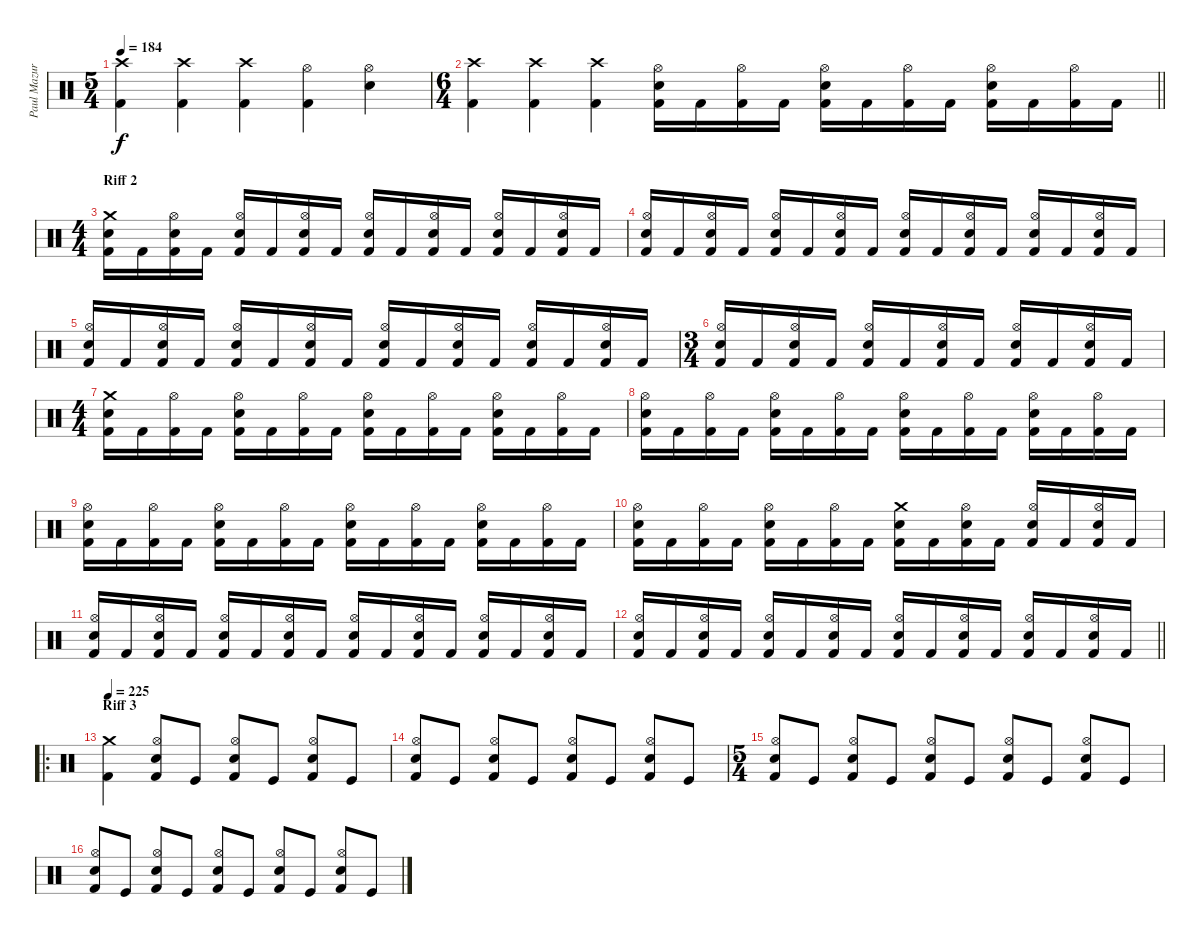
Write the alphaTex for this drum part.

\track ("Paul Mazurkiewicz" "Paul Mazur") {instrument percussion}
\staff {score}
\articulation defaults
\ts (5 4)
\tempo 184
\clef neutral
\ks c
("Crash high (hit)" "Kick (hit) 2").4{dy f} ("Crash high (hit)" "Kick (hit) 2").4 ("Crash high (hit)" "Kick (hit) 2").4 ("Hi-Hat (open)" "Kick (hit) 2").4 ("Hi-Hat (open)" "Electric Snare (hit)").4 |
\ts (6 4)
\barLineRight lightlight
("Crash high (hit)" "Kick (hit) 2").4 ("Crash high (hit)" "Kick (hit) 2").4 ("Crash high (hit)" "Kick (hit) 2").4 ("Hi-Hat (open)" "Electric Snare (hit)" "Kick (hit) 2").16 "Kick (hit) 2".16 ("Hi-Hat (open)" "Kick (hit) 2").16 "Kick (hit) 2".16 ("Hi-Hat (open)" "Electric Snare (hit)" "Kick (hit) 2").16 "Kick (hit) 2".16 ("Hi-Hat (open)" "Kick (hit) 2").16 "Kick (hit) 2".16 ("Hi-Hat (open)" "Electric Snare (hit)" "Kick (hit) 2").16 "Kick (hit) 2".16 ("Hi-Hat (open)" "Kick (hit) 2").16 "Kick (hit) 2".16 |
\ts (4 4)
\section ("" "Riff 2")
("Crash medium (hit)" "Electric Snare (hit)" "Kick (hit) 2").16 "Kick (hit) 2".16 ("Hi-Hat (open)" "Electric Snare (hit)" "Kick (hit) 2").16 "Kick (hit) 2".16 ("Hi-Hat (open)" "Electric Snare (hit)" "Kick (hit) 2").16 "Kick (hit) 2".16 ("Hi-Hat (open)" "Electric Snare (hit)" "Kick (hit) 2").16 "Kick (hit) 2".16 ("Hi-Hat (open)" "Electric Snare (hit)" "Kick (hit) 2").16 "Kick (hit) 2".16 ("Hi-Hat (open)" "Electric Snare (hit)" "Kick (hit) 2").16 "Kick (hit) 2".16 ("Hi-Hat (open)" "Electric Snare (hit)" "Kick (hit) 2").16 "Kick (hit) 2".16 ("Hi-Hat (open)" "Electric Snare (hit)" "Kick (hit) 2").16 "Kick (hit) 2".16 |
("Hi-Hat (open)" "Electric Snare (hit)" "Kick (hit) 2").16 "Kick (hit) 2".16 ("Hi-Hat (open)" "Electric Snare (hit)" "Kick (hit) 2").16 "Kick (hit) 2".16 ("Hi-Hat (open)" "Electric Snare (hit)" "Kick (hit) 2").16 "Kick (hit) 2".16 ("Hi-Hat (open)" "Electric Snare (hit)" "Kick (hit) 2").16 "Kick (hit) 2".16 ("Hi-Hat (open)" "Electric Snare (hit)" "Kick (hit) 2").16 "Kick (hit) 2".16 ("Hi-Hat (open)" "Electric Snare (hit)" "Kick (hit) 2").16 "Kick (hit) 2".16 ("Hi-Hat (open)" "Electric Snare (hit)" "Kick (hit) 2").16 "Kick (hit) 2".16 ("Hi-Hat (open)" "Electric Snare (hit)" "Kick (hit) 2").16 "Kick (hit) 2".16 |
("Hi-Hat (open)" "Electric Snare (hit)" "Kick (hit) 2").16 "Kick (hit) 2".16 ("Hi-Hat (open)" "Electric Snare (hit)" "Kick (hit) 2").16 "Kick (hit) 2".16 ("Hi-Hat (open)" "Electric Snare (hit)" "Kick (hit) 2").16 "Kick (hit) 2".16 ("Hi-Hat (open)" "Electric Snare (hit)" "Kick (hit) 2").16 "Kick (hit) 2".16 ("Hi-Hat (open)" "Electric Snare (hit)" "Kick (hit) 2").16 "Kick (hit) 2".16 ("Hi-Hat (open)" "Electric Snare (hit)" "Kick (hit) 2").16 "Kick (hit) 2".16 ("Hi-Hat (open)" "Electric Snare (hit)" "Kick (hit) 2").16 "Kick (hit) 2".16 ("Hi-Hat (open)" "Electric Snare (hit)" "Kick (hit) 2").16 "Kick (hit) 2".16 |
\ts (3 4)
("Hi-Hat (open)" "Electric Snare (hit)" "Kick (hit) 2").16 "Kick (hit) 2".16 ("Hi-Hat (open)" "Electric Snare (hit)" "Kick (hit) 2").16 "Kick (hit) 2".16 ("Hi-Hat (open)" "Electric Snare (hit)" "Kick (hit) 2").16 "Kick (hit) 2".16 ("Hi-Hat (open)" "Electric Snare (hit)" "Kick (hit) 2").16 "Kick (hit) 2".16 ("Hi-Hat (open)" "Electric Snare (hit)" "Kick (hit) 2").16 "Kick (hit) 2".16 ("Hi-Hat (open)" "Electric Snare (hit)" "Kick (hit) 2").16 "Kick (hit) 2".16 |
\ts (4 4)
("Crash medium (hit)" "Electric Snare (hit)" "Kick (hit) 2").16 "Kick (hit) 2".16 ("Hi-Hat (open)" "Kick (hit) 2").16 "Kick (hit) 2".16 ("Hi-Hat (open)" "Electric Snare (hit)" "Kick (hit) 2").16 "Kick (hit) 2".16 ("Hi-Hat (open)" "Kick (hit) 2").16 "Kick (hit) 2".16 ("Hi-Hat (open)" "Electric Snare (hit)" "Kick (hit) 2").16 "Kick (hit) 2".16 ("Hi-Hat (open)" "Kick (hit) 2").16 "Kick (hit) 2".16 ("Hi-Hat (open)" "Electric Snare (hit)" "Kick (hit) 2").16 "Kick (hit) 2".16 ("Hi-Hat (open)" "Kick (hit) 2").16 "Kick (hit) 2".16 |
("Hi-Hat (open)" "Electric Snare (hit)" "Kick (hit) 2").16 "Kick (hit) 2".16 ("Hi-Hat (open)" "Kick (hit) 2").16 "Kick (hit) 2".16 ("Hi-Hat (open)" "Electric Snare (hit)" "Kick (hit) 2").16 "Kick (hit) 2".16 ("Hi-Hat (open)" "Kick (hit) 2").16 "Kick (hit) 2".16 ("Hi-Hat (open)" "Electric Snare (hit)" "Kick (hit) 2").16 "Kick (hit) 2".16 ("Hi-Hat (open)" "Kick (hit) 2").16 "Kick (hit) 2".16 ("Hi-Hat (open)" "Electric Snare (hit)" "Kick (hit) 2").16 "Kick (hit) 2".16 ("Hi-Hat (open)" "Kick (hit) 2").16 "Kick (hit) 2".16 |
("Hi-Hat (open)" "Electric Snare (hit)" "Kick (hit) 2").16 "Kick (hit) 2".16 ("Hi-Hat (open)" "Kick (hit) 2").16 "Kick (hit) 2".16 ("Hi-Hat (open)" "Electric Snare (hit)" "Kick (hit) 2").16 "Kick (hit) 2".16 ("Hi-Hat (open)" "Kick (hit) 2").16 "Kick (hit) 2".16 ("Hi-Hat (open)" "Electric Snare (hit)" "Kick (hit) 2").16 "Kick (hit) 2".16 ("Hi-Hat (open)" "Kick (hit) 2").16 "Kick (hit) 2".16 ("Hi-Hat (open)" "Electric Snare (hit)" "Kick (hit) 2").16 "Kick (hit) 2".16 ("Hi-Hat (open)" "Kick (hit) 2").16 "Kick (hit) 2".16 |
("Hi-Hat (open)" "Electric Snare (hit)" "Kick (hit) 2").16 "Kick (hit) 2".16 ("Hi-Hat (open)" "Kick (hit) 2").16 "Kick (hit) 2".16 ("Hi-Hat (open)" "Electric Snare (hit)" "Kick (hit) 2").16 "Kick (hit) 2".16 ("Hi-Hat (open)" "Kick (hit) 2").16 "Kick (hit) 2".16 ("Crash medium (hit)" "Electric Snare (hit)" "Kick (hit) 2").16 "Kick (hit) 2".16 ("Hi-Hat (open)" "Electric Snare (hit)" "Kick (hit) 2").16 "Kick (hit) 2".16 ("Hi-Hat (open)" "Electric Snare (hit)" "Kick (hit) 2").16 "Kick (hit) 2".16 ("Hi-Hat (open)" "Electric Snare (hit)" "Kick (hit) 2").16 "Kick (hit) 2".16 |
("Hi-Hat (open)" "Electric Snare (hit)" "Kick (hit) 2").16 "Kick (hit) 2".16 ("Hi-Hat (open)" "Electric Snare (hit)" "Kick (hit) 2").16 "Kick (hit) 2".16 ("Hi-Hat (open)" "Electric Snare (hit)" "Kick (hit) 2").16 "Kick (hit) 2".16 ("Hi-Hat (open)" "Electric Snare (hit)" "Kick (hit) 2").16 "Kick (hit) 2".16 ("Hi-Hat (open)" "Electric Snare (hit)" "Kick (hit) 2").16 "Kick (hit) 2".16 ("Hi-Hat (open)" "Electric Snare (hit)" "Kick (hit) 2").16 "Kick (hit) 2".16 ("Hi-Hat (open)" "Electric Snare (hit)" "Kick (hit) 2").16 "Kick (hit) 2".16 ("Hi-Hat (open)" "Electric Snare (hit)" "Kick (hit) 2").16 "Kick (hit) 2".16 |
\barLineRight lightlight
("Hi-Hat (open)" "Electric Snare (hit)" "Kick (hit) 2").16 "Kick (hit) 2".16 ("Hi-Hat (open)" "Electric Snare (hit)" "Kick (hit) 2").16 "Kick (hit) 2".16 ("Hi-Hat (open)" "Electric Snare (hit)" "Kick (hit) 2").16 "Kick (hit) 2".16 ("Hi-Hat (open)" "Electric Snare (hit)" "Kick (hit) 2").16 "Kick (hit) 2".16 ("Hi-Hat (open)" "Electric Snare (hit)" "Kick (hit) 2").16 "Kick (hit) 2".16 ("Hi-Hat (open)" "Electric Snare (hit)" "Kick (hit) 2").16 "Kick (hit) 2".16 ("Hi-Hat (open)" "Electric Snare (hit)" "Kick (hit) 2").16 "Kick (hit) 2".16 ("Hi-Hat (open)" "Electric Snare (hit)" "Kick (hit) 2").16 "Kick (hit) 2".16 |
\ro
\section ("" "Riff 3")
\tempo 210
\tempo 225
("Crash medium (hit)" "Kick (hit) 2").4 ("Hi-Hat (open)" "Electric Snare (hit)" "Kick (hit) 2").8 "Kick (hit)".8 ("Hi-Hat (open)" "Electric Snare (hit)" "Kick (hit) 2").8 "Kick (hit)".8 ("Hi-Hat (open)" "Electric Snare (hit)" "Kick (hit) 2").8 "Kick (hit)".8 |
("Hi-Hat (open)" "Electric Snare (hit)" "Kick (hit) 2").8 "Kick (hit)".8 ("Hi-Hat (open)" "Electric Snare (hit)" "Kick (hit) 2").8 "Kick (hit)".8 ("Hi-Hat (open)" "Electric Snare (hit)" "Kick (hit) 2").8 "Kick (hit)".8 ("Hi-Hat (open)" "Electric Snare (hit)" "Kick (hit) 2").8 "Kick (hit)".8 |
\ts (5 4)
("Hi-Hat (open)" "Electric Snare (hit)" "Kick (hit) 2").8 "Kick (hit)".8 ("Hi-Hat (open)" "Electric Snare (hit)" "Kick (hit) 2").8 "Kick (hit)".8 ("Hi-Hat (open)" "Electric Snare (hit)" "Kick (hit) 2").8 "Kick (hit)".8 ("Hi-Hat (open)" "Electric Snare (hit)" "Kick (hit) 2").8 "Kick (hit)".8 ("Hi-Hat (open)" "Electric Snare (hit)" "Kick (hit) 2").8 "Kick (hit)".8 |
("Hi-Hat (open)" "Electric Snare (hit)" "Kick (hit) 2").8 "Kick (hit)".8 ("Hi-Hat (open)" "Electric Snare (hit)" "Kick (hit) 2").8 "Kick (hit)".8 ("Hi-Hat (open)" "Electric Snare (hit)" "Kick (hit) 2").8 "Kick (hit)".8 ("Hi-Hat (open)" "Electric Snare (hit)" "Kick (hit) 2").8 "Kick (hit)".8 ("Hi-Hat (open)" "Electric Snare (hit)" "Kick (hit) 2").8 "Kick (hit)".8
